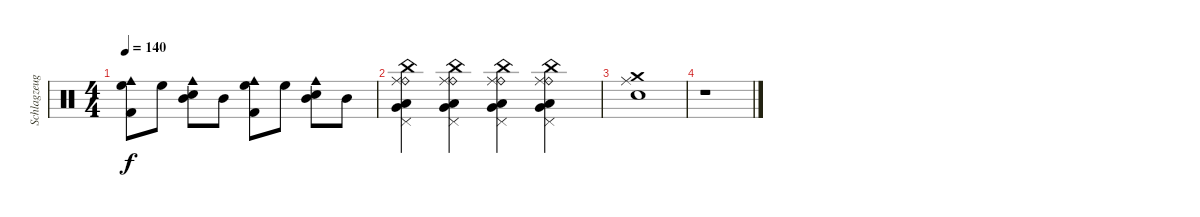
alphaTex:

\track ("Schlagzeug" "Schlagzeug") {instrument percussion}
\staff {score}
\articulation defaults
\ts (4 4)
\tempo 140
\clef neutral
\ks c
("Cowbell medium (hit)" "High Floor Tom (hit)" "Kick (hit) 2").8{dy f} "High Floor Tom (hit)".8 ("Mid Tom (hit)" "Cowbell medium (hit)" "Snare (hit) 2").8 "Mid Tom (hit)".8 ("Cowbell medium (hit)" "High Floor Tom (hit)" "Kick (hit) 2").8 "High Floor Tom (hit)".8 ("Mid Tom (hit)" "Cowbell medium (hit)" "Snare (hit) 2").8 "Mid Tom (hit)".8 |
("China (hit)" "Ride (bell)" "Ride (middle)" "Low Floor Tom (hit)" "Pedal Hi-Hat (hit)" "Very Low Tom (hit)").4 ("China (hit)" "Ride (bell)" "Ride (middle)" "Low Floor Tom (hit)" "Pedal Hi-Hat (hit)" "Very Low Tom (hit)").4 ("China (hit)" "Ride (bell)" "Ride (middle)" "Low Floor Tom (hit)" "Pedal Hi-Hat (hit)" "Very Low Tom (hit)").4 ("China (hit)" "Ride (bell)" "Ride (middle)" "Low Floor Tom (hit)" "Pedal Hi-Hat (hit)" "Very Low Tom (hit)").4 |
("Snare (hit) 2" "Crash medium (hit)" "Ride (middle)").1 |
r.1
